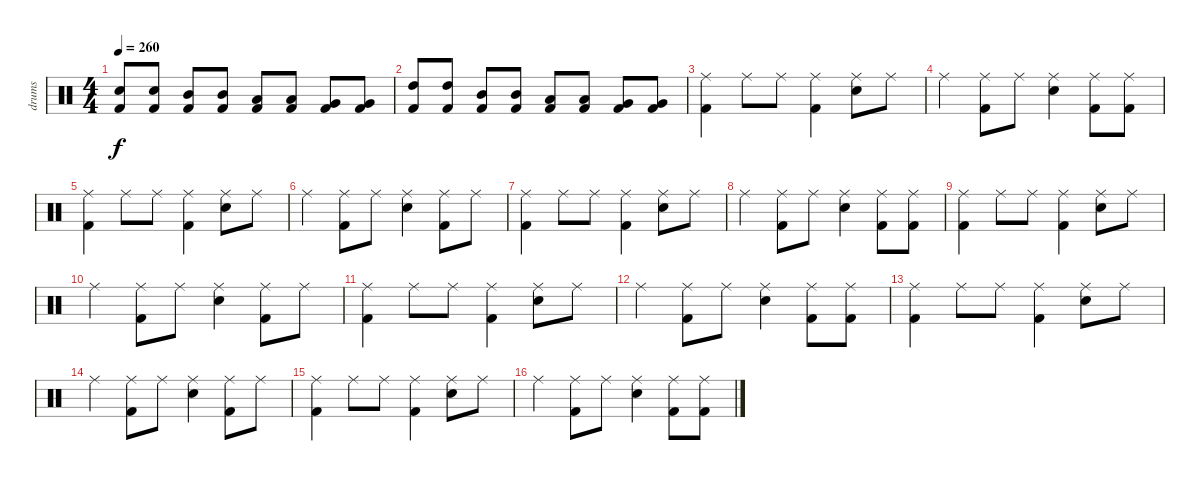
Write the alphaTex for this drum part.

\track ("drums" "drums") {instrument percussion}
\staff {score}
\articulation defaults
\ts (4 4)
\tempo 260
\clef neutral
\ks c
("Electric Snare (hit)" "Kick (hit) 2").8{dy f} ("Electric Snare (hit)" "Kick (hit) 2").8 ("Mid Tom (hit)" "Kick (hit) 2").8 ("Mid Tom (hit)" "Kick (hit) 2").8 ("Low Tom (hit)" "Kick (hit) 2").8 ("Low Tom (hit)" "Kick (hit) 2").8 ("Very Low Tom (hit)" "Kick (hit) 2").8 ("Very Low Tom (hit)" "Kick (hit) 2").8 |
("High Tom (hit)" "Kick (hit) 2").8 ("High Tom (hit)" "Kick (hit) 2").8 ("Mid Tom (hit)" "Kick (hit) 2").8 ("Mid Tom (hit)" "Kick (hit) 2").8 ("Low Tom (hit)" "Kick (hit) 2").8 ("Low Tom (hit)" "Kick (hit) 2").8 ("Very Low Tom (hit)" "Kick (hit) 2").8 ("Very Low Tom (hit)" "Kick (hit) 2").8 |
("Ride (middle)" "Kick (hit) 2").4 "Ride (middle)".8 "Ride (middle)".8 ("Ride (middle)" "Kick (hit) 2").4 ("Ride (middle)" "Electric Snare (hit)").8 "Ride (middle)".8 |
"Ride (middle)".4 ("Ride (middle)" "Kick (hit) 2").8 "Ride (middle)".8 ("Ride (middle)" "Electric Snare (hit)").4 ("Ride (middle)" "Kick (hit) 2").8 ("Ride (middle)" "Kick (hit) 2").8 |
("Ride (middle)" "Kick (hit) 2").4 "Ride (middle)".8 "Ride (middle)".8 ("Ride (middle)" "Kick (hit) 2").4 ("Ride (middle)" "Electric Snare (hit)").8 "Ride (middle)".8 |
"Ride (middle)".4 ("Ride (middle)" "Kick (hit) 2").8 "Ride (middle)".8 ("Ride (middle)" "Electric Snare (hit)").4 ("Ride (middle)" "Kick (hit) 2").8 "Ride (middle)".8 |
("Ride (middle)" "Kick (hit) 2").4 "Ride (middle)".8 "Ride (middle)".8 ("Ride (middle)" "Kick (hit) 2").4 ("Ride (middle)" "Electric Snare (hit)").8 "Ride (middle)".8 |
"Ride (middle)".4 ("Ride (middle)" "Kick (hit) 2").8 "Ride (middle)".8 ("Ride (middle)" "Electric Snare (hit)").4 ("Ride (middle)" "Kick (hit) 2").8 ("Ride (middle)" "Kick (hit) 2").8 |
("Ride (middle)" "Kick (hit) 2").4 "Ride (middle)".8 "Ride (middle)".8 ("Ride (middle)" "Kick (hit) 2").4 ("Ride (middle)" "Electric Snare (hit)").8 "Ride (middle)".8 |
"Ride (middle)".4 ("Ride (middle)" "Kick (hit) 2").8 "Ride (middle)".8 ("Ride (middle)" "Electric Snare (hit)").4 ("Ride (middle)" "Kick (hit) 2").8 "Ride (middle)".8 |
("Ride (middle)" "Kick (hit) 2").4 "Ride (middle)".8 "Ride (middle)".8 ("Ride (middle)" "Kick (hit) 2").4 ("Ride (middle)" "Electric Snare (hit)").8 "Ride (middle)".8 |
"Ride (middle)".4 ("Ride (middle)" "Kick (hit) 2").8 "Ride (middle)".8 ("Ride (middle)" "Electric Snare (hit)").4 ("Ride (middle)" "Kick (hit) 2").8 ("Ride (middle)" "Kick (hit) 2").8 |
("Ride (middle)" "Kick (hit) 2").4 "Ride (middle)".8 "Ride (middle)".8 ("Ride (middle)" "Kick (hit) 2").4 ("Ride (middle)" "Electric Snare (hit)").8 "Ride (middle)".8 |
"Ride (middle)".4 ("Ride (middle)" "Kick (hit) 2").8 "Ride (middle)".8 ("Ride (middle)" "Electric Snare (hit)").4 ("Ride (middle)" "Kick (hit) 2").8 "Ride (middle)".8 |
("Ride (middle)" "Kick (hit) 2").4 "Ride (middle)".8 "Ride (middle)".8 ("Ride (middle)" "Kick (hit) 2").4 ("Ride (middle)" "Electric Snare (hit)").8 "Ride (middle)".8 |
"Ride (middle)".4 ("Ride (middle)" "Kick (hit) 2").8 "Ride (middle)".8 ("Ride (middle)" "Electric Snare (hit)").4 ("Ride (middle)" "Kick (hit) 2").8 ("Ride (middle)" "Kick (hit) 2").8
